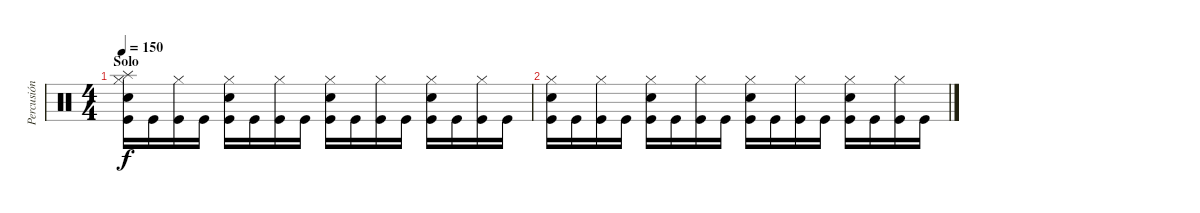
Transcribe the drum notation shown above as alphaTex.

\track ("Percusión" "Percusión") {instrument percussion}
\staff {score}
\articulation defaults
\ts (4 4)
\section ("" "Solo")
\tempo 150
\clef neutral
\ks c
("Hi-Hat (closed)" "Splash (hit)" "Snare (hit) 2" "Kick (hit)").16{dy f} "Kick (hit)".16 ("Hi-Hat (closed)" "Kick (hit)").16 "Kick (hit)".16 ("Hi-Hat (closed)" "Snare (hit) 2" "Kick (hit)").16 "Kick (hit)".16 ("Hi-Hat (closed)" "Kick (hit)").16 "Kick (hit)".16 ("Hi-Hat (closed)" "Snare (hit) 2" "Kick (hit)").16 "Kick (hit)".16 ("Hi-Hat (closed)" "Kick (hit)").16 "Kick (hit)".16 ("Hi-Hat (closed)" "Snare (hit) 2" "Kick (hit)").16 "Kick (hit)".16 ("Hi-Hat (closed)" "Kick (hit)").16 "Kick (hit)".16 |
("Hi-Hat (closed)" "Snare (hit) 2" "Kick (hit)").16 "Kick (hit)".16 ("Hi-Hat (closed)" "Kick (hit)").16 "Kick (hit)".16 ("Hi-Hat (closed)" "Snare (hit) 2" "Kick (hit)").16 "Kick (hit)".16 ("Hi-Hat (closed)" "Kick (hit)").16 "Kick (hit)".16 ("Hi-Hat (closed)" "Snare (hit) 2" "Kick (hit)").16 "Kick (hit)".16 ("Hi-Hat (closed)" "Kick (hit)").16 "Kick (hit)".16 ("Hi-Hat (closed)" "Snare (hit) 2" "Kick (hit)").16 "Kick (hit)".16 ("Hi-Hat (closed)" "Kick (hit)").16 "Kick (hit)".16
